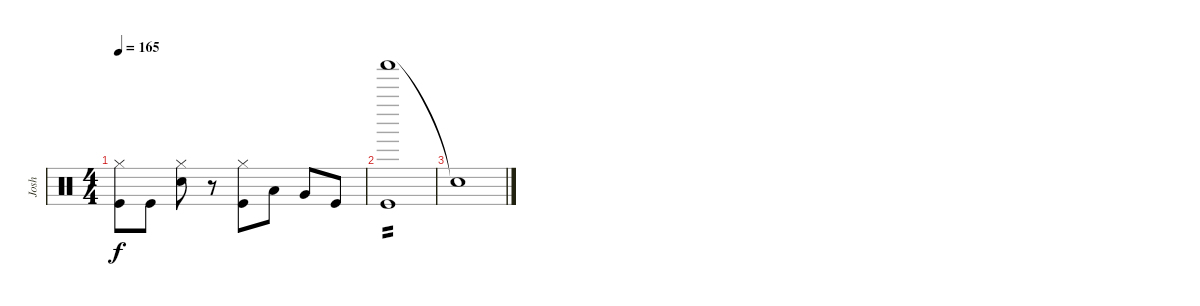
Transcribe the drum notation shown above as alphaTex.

\track ("Josh" "Josh") {instrument percussion}
\staff {score}
\articulation defaults
\ts (4 4)
\tempo 165
\clef neutral
\ks c
("Hi-Hat (closed)" "Kick (hit)").8{dy f} "Kick (hit)".8 ("Hi-Hat (closed)" "Snare (hit) 2").8 r.8 ("Hi-Hat (closed)" "Kick (hit)").8 "Low Tom (hit)".8 "Very Low Tom (hit)".8 "Kick (hit)".8 |
("Shaker (hit)" "Kick (hit)").1{tp 2} |
"Snare (hit)"{t}.1
